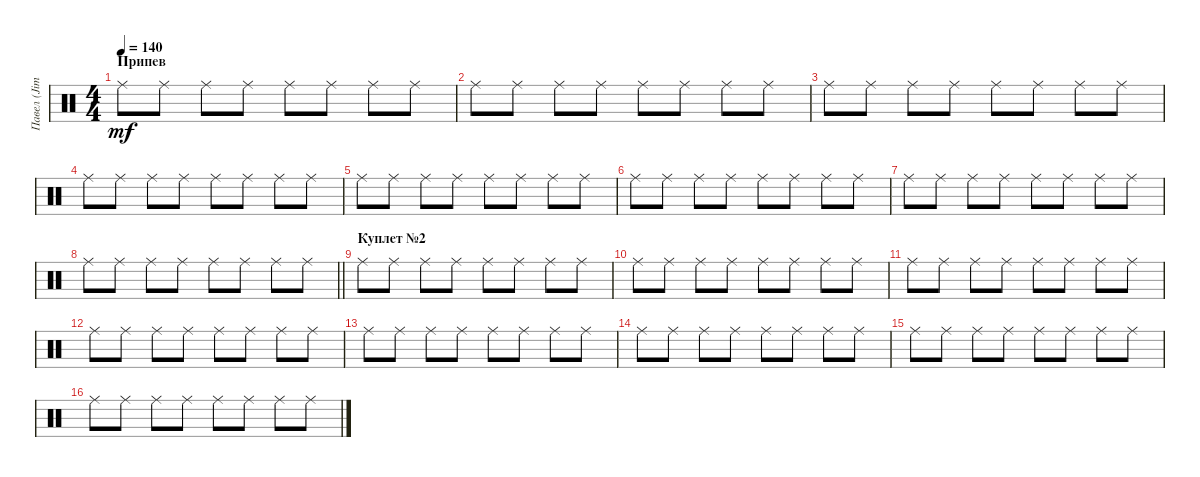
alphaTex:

\track ("Павел (Jimmy) Лохнин" "Павел (Jim") {instrument percussion}
\staff {score}
\articulation defaults
\ts (4 4)
\section ("" "Припев")
\tempo 140
\clef neutral
\ks c "Ride (middle)".8{dy mf} "Ride (middle)".8 "Ride (middle)".8 "Ride (middle)".8 "Ride (middle)".8 "Ride (middle)".8 "Ride (middle)".8 "Ride (middle)".8
|
"Ride (middle)".8 "Ride (middle)".8 "Ride (middle)".8 "Ride (middle)".8 "Ride (middle)".8 "Ride (middle)".8 "Ride (middle)".8 "Ride (middle)".8 |
"Ride (middle)".8 "Ride (middle)".8 "Ride (middle)".8 "Ride (middle)".8 "Ride (middle)".8 "Ride (middle)".8 "Ride (middle)".8 "Ride (middle)".8 |
"Ride (middle)".8 "Ride (middle)".8 "Ride (middle)".8 "Ride (middle)".8 "Ride (middle)".8 "Ride (middle)".8 "Ride (middle)".8 "Ride (middle)".8 |
"Ride (middle)".8 "Ride (middle)".8 "Ride (middle)".8 "Ride (middle)".8 "Ride (middle)".8 "Ride (middle)".8 "Ride (middle)".8 "Ride (middle)".8 |
"Ride (middle)".8 "Ride (middle)".8 "Ride (middle)".8 "Ride (middle)".8 "Ride (middle)".8 "Ride (middle)".8 "Ride (middle)".8 "Ride (middle)".8 |
"Ride (middle)".8 "Ride (middle)".8 "Ride (middle)".8 "Ride (middle)".8 "Ride (middle)".8 "Ride (middle)".8 "Ride (middle)".8 "Ride (middle)".8 |
\barLineRight lightlight "Ride (middle)".8 "Ride (middle)".8 "Ride (middle)".8 "Ride (middle)".8 "Ride (middle)".8 "Ride (middle)".8 "Ride (middle)".8 "Ride (middle)".8
|
\section ("" "Куплет №2")
"Ride (middle)".8 "Ride (middle)".8 "Ride (middle)".8 "Ride (middle)".8 "Ride (middle)".8 "Ride (middle)".8 "Ride (middle)".8 "Ride (middle)".8 |
"Ride (middle)".8 "Ride (middle)".8 "Ride (middle)".8 "Ride (middle)".8 "Ride (middle)".8 "Ride (middle)".8 "Ride (middle)".8 "Ride (middle)".8 |
"Ride (middle)".8 "Ride (middle)".8 "Ride (middle)".8 "Ride (middle)".8 "Ride (middle)".8 "Ride (middle)".8 "Ride (middle)".8 "Ride (middle)".8 |
"Ride (middle)".8 "Ride (middle)".8 "Ride (middle)".8 "Ride (middle)".8 "Ride (middle)".8 "Ride (middle)".8 "Ride (middle)".8 "Ride (middle)".8 |
"Ride (middle)".8 "Ride (middle)".8 "Ride (middle)".8 "Ride (middle)".8 "Ride (middle)".8 "Ride (middle)".8 "Ride (middle)".8 "Ride (middle)".8 |
"Ride (middle)".8 "Ride (middle)".8 "Ride (middle)".8 "Ride (middle)".8 "Ride (middle)".8 "Ride (middle)".8 "Ride (middle)".8 "Ride (middle)".8 |
"Ride (middle)".8 "Ride (middle)".8 "Ride (middle)".8 "Ride (middle)".8 "Ride (middle)".8 "Ride (middle)".8 "Ride (middle)".8 "Ride (middle)".8 |
"Ride (middle)".8 "Ride (middle)".8 "Ride (middle)".8 "Ride (middle)".8 "Ride (middle)".8 "Ride (middle)".8 "Ride (middle)".8 "Ride (middle)".8
